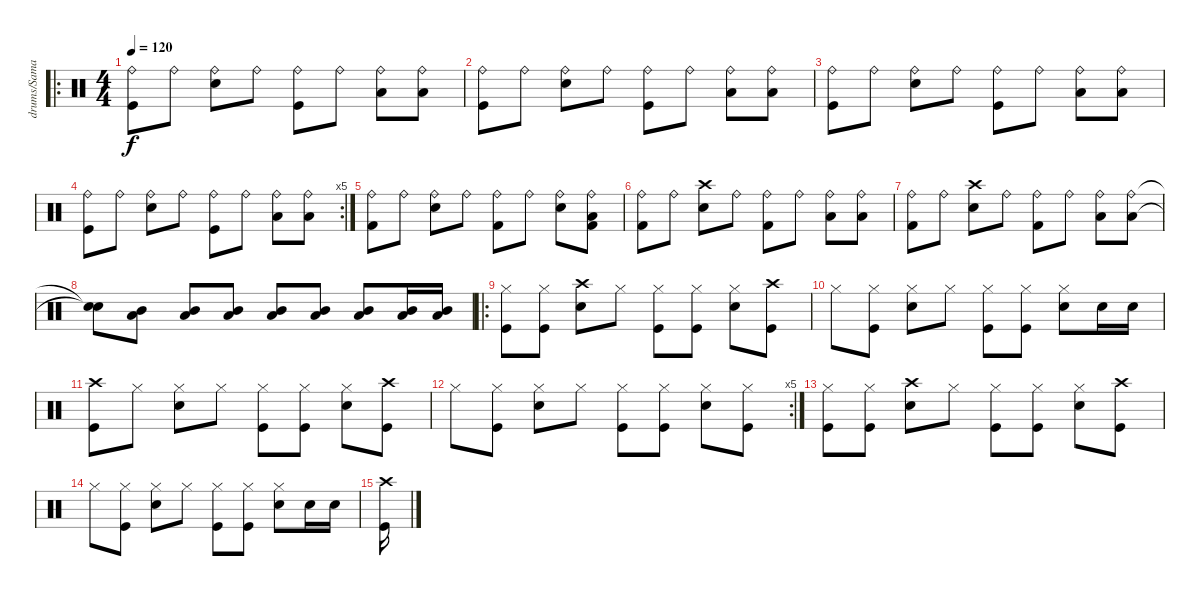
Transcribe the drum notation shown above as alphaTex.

\track ("drums/Samantha" "drums/Sama") {instrument percussion}
\staff {score}
\articulation defaults
\ro
\ts (4 4)
\tempo 120
\clef neutral
\ks c
("Ride (bell)" "Kick (hit)").8{dy f} "Ride (bell)".8 ("Ride (bell)" "Snare (hit) 2").8 "Ride (bell)".8 ("Ride (bell)" "Kick (hit)").8 "Ride (bell)".8 ("Ride (bell)" "Low Floor Tom (hit)").8 ("Ride (bell)" "Low Floor Tom (hit)").8 |
("Ride (bell)" "Kick (hit)").8 "Ride (bell)".8 ("Ride (bell)" "Snare (hit) 2").8 "Ride (bell)".8 ("Ride (bell)" "Kick (hit)").8 "Ride (bell)".8 ("Ride (bell)" "Low Floor Tom (hit)").8 ("Ride (bell)" "Low Floor Tom (hit)").8 |
("Ride (bell)" "Kick (hit)").8 "Ride (bell)".8 ("Ride (bell)" "Snare (hit) 2").8 "Ride (bell)".8 ("Ride (bell)" "Kick (hit)").8 "Ride (bell)".8 ("Ride (bell)" "Low Floor Tom (hit)").8 ("Ride (bell)" "Low Floor Tom (hit)").8 |
\rc 5
("Ride (bell)" "Kick (hit)").8 "Ride (bell)".8 ("Ride (bell)" "Snare (hit) 2").8 "Ride (bell)".8 ("Ride (bell)" "Kick (hit)").8 "Ride (bell)".8 ("Ride (bell)" "Low Floor Tom (hit)").8 ("Ride (bell)" "Low Floor Tom (hit)").8 |
("Ride (bell)" "Kick (hit) 2").8 "Ride (bell)".8 ("Ride (bell)" "Snare (hit) 2").8 "Ride (bell)".8 ("Ride (bell)" "Kick (hit) 2").8 "Ride (bell)".8 ("Ride (bell)" "Snare (hit) 2").8 ("Ride (bell)" "Low Floor Tom (hit)" "Kick (hit) 2").8 |
("Ride (bell)" "Kick (hit) 2").8 "Ride (bell)".8 ("Crash high (hit)" "Snare (hit) 2").8 "Ride (bell)".8 ("Ride (bell)" "Kick (hit) 2").8 "Ride (bell)".8 ("Ride (bell)" "Low Floor Tom (hit)").8 ("Ride (bell)" "Low Floor Tom (hit)").8 |
("Ride (bell)" "Kick (hit) 2").8 "Ride (bell)".8 ("Crash high (hit)" "Snare (hit) 2").8 "Ride (bell)".8 ("Ride (bell)" "Kick (hit) 2").8 "Ride (bell)".8 ("Ride (bell)" "Low Floor Tom (hit)").8 ("Ride (bell)" "Low Floor Tom (hit)").8 |
("Snare (hit)"{t} "Snare (hit)"{t}).8 ("Mid Tom (hit)" "Low Floor Tom (hit)").8 ("Mid Tom (hit)" "Low Floor Tom (hit)").8 ("Mid Tom (hit)" "Low Floor Tom (hit)").8 ("Mid Tom (hit)" "Low Floor Tom (hit)").8 ("Mid Tom (hit)" "Low Floor Tom (hit)").8 ("Mid Tom (hit)" "Low Floor Tom (hit)").8 ("Mid Tom (hit)" "Low Floor Tom (hit)").16 ("Mid Tom (hit)" "Low Floor Tom (hit)").16 |
\ro
("Hi-Hat (closed)" "Kick (hit)").8 ("Hi-Hat (closed)" "Kick (hit)").8 ("Crash high (hit)" "Snare (hit) 2").8 "Hi-Hat (closed)".8 ("Hi-Hat (closed)" "Kick (hit)").8 ("Hi-Hat (closed)" "Kick (hit)").8 ("Hi-Hat (closed)" "Snare (hit) 2").8 ("Crash high (hit)" "Kick (hit)").8 |
"Hi-Hat (closed)".8 ("Hi-Hat (closed)" "Kick (hit)").8 ("Hi-Hat (closed)" "Snare (hit) 2").8 "Hi-Hat (closed)".8 ("Hi-Hat (closed)" "Kick (hit)").8 ("Hi-Hat (closed)" "Kick (hit)").8 ("Hi-Hat (closed)" "Snare (hit) 2").8 "Snare (hit) 2".16 "Snare (hit) 2".16 |
("Crash high (hit)" "Kick (hit)").8 "Hi-Hat (closed)".8 ("Hi-Hat (closed)" "Snare (hit) 2").8 "Hi-Hat (closed)".8 ("Hi-Hat (closed)" "Kick (hit)").8 ("Hi-Hat (closed)" "Kick (hit)").8 ("Hi-Hat (closed)" "Snare (hit) 2").8 ("Crash high (hit)" "Kick (hit)").8 |
\rc 5 "Hi-Hat (closed)".8
("Hi-Hat (closed)" "Kick (hit)").8 ("Hi-Hat (closed)" "Snare (hit) 2").8 "Hi-Hat (closed)".8 ("Hi-Hat (closed)" "Kick (hit)").8 ("Hi-Hat (closed)" "Kick (hit)").8 ("Hi-Hat (closed)" "Snare (hit) 2").8 ("Hi-Hat (closed)" "Kick (hit)").8 |
("Hi-Hat (closed)" "Kick (hit)").8 ("Hi-Hat (closed)" "Kick (hit)").8 ("Crash high (hit)" "Snare (hit) 2").8 "Hi-Hat (closed)".8 ("Hi-Hat (closed)" "Kick (hit)").8 ("Hi-Hat (closed)" "Kick (hit)").8 ("Hi-Hat (closed)" "Snare (hit) 2").8 ("Crash high (hit)" "Kick (hit)").8 |
"Hi-Hat (closed)".8 ("Hi-Hat (closed)" "Kick (hit)").8 ("Hi-Hat (closed)" "Snare (hit) 2").8 "Hi-Hat (closed)".8 ("Hi-Hat (closed)" "Kick (hit)").8 ("Hi-Hat (closed)" "Kick (hit)").8 ("Hi-Hat (closed)" "Snare (hit) 2").8 "Snare (hit) 2".16 "Snare (hit) 2".16 |
("Crash high (hit)" "Kick (hit)").16
